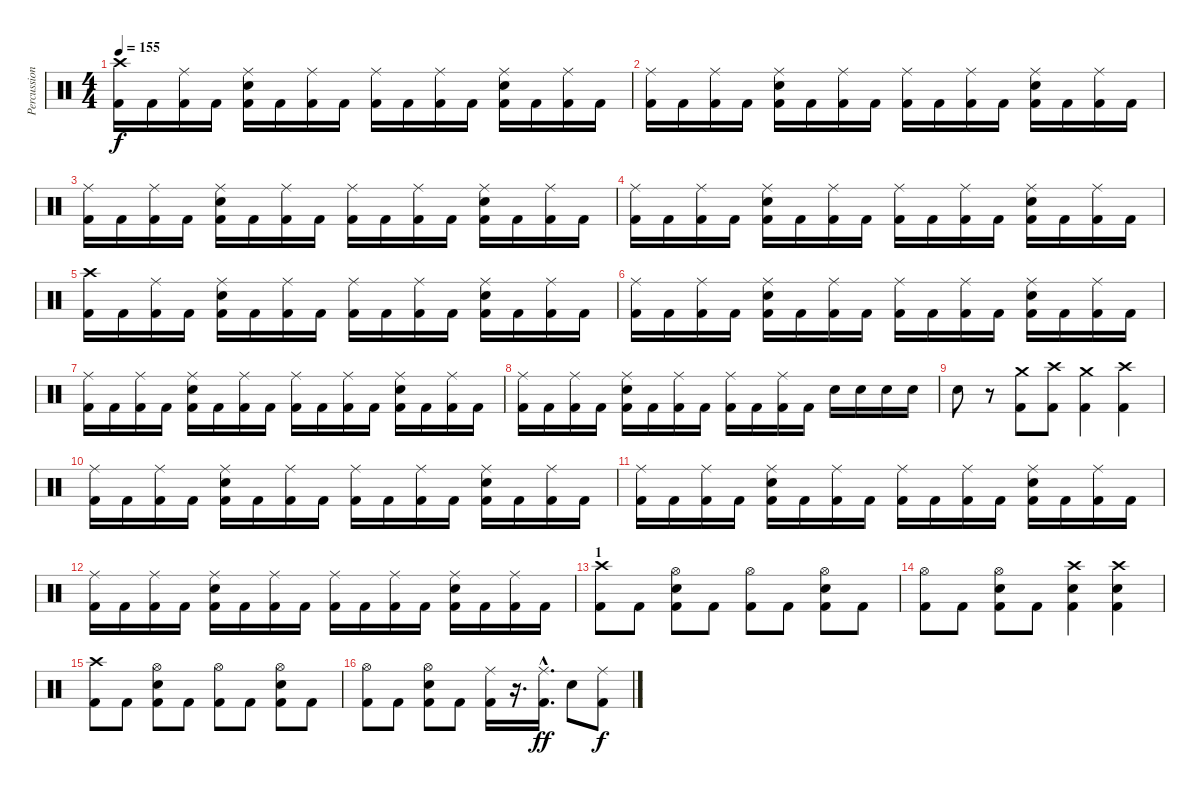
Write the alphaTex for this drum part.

\track ("Percussion" "Percussion") {instrument percussion}
\staff {score}
\articulation defaults
\ts (4 4)
\tempo 155
\clef neutral
\ks c
("Crash high (hit)" "Kick (hit) 2").16{dy f} "Kick (hit) 2".16 ("Ride (middle)" "Kick (hit) 2").16 "Kick (hit) 2".16 ("Ride (middle)" "Snare (hit) 2" "Kick (hit) 2").16 "Kick (hit) 2".16 ("Ride (middle)" "Kick (hit) 2").16 "Kick (hit) 2".16 ("Ride (middle)" "Kick (hit) 2").16 "Kick (hit) 2".16 ("Ride (middle)" "Kick (hit) 2").16 "Kick (hit) 2".16 ("Ride (middle)" "Snare (hit) 2" "Kick (hit) 2").16 "Kick (hit) 2".16 ("Ride (middle)" "Kick (hit) 2").16 "Kick (hit) 2".16 |
("Ride (middle)" "Kick (hit) 2").16 "Kick (hit) 2".16 ("Ride (middle)" "Kick (hit) 2").16 "Kick (hit) 2".16 ("Ride (middle)" "Snare (hit) 2" "Kick (hit) 2").16 "Kick (hit) 2".16 ("Ride (middle)" "Kick (hit) 2").16 "Kick (hit) 2".16 ("Ride (middle)" "Kick (hit) 2").16 "Kick (hit) 2".16 ("Ride (middle)" "Kick (hit) 2").16 "Kick (hit) 2".16 ("Ride (middle)" "Snare (hit) 2" "Kick (hit) 2").16 "Kick (hit) 2".16 ("Ride (middle)" "Kick (hit) 2").16 "Kick (hit) 2".16 |
("Ride (middle)" "Kick (hit) 2").16 "Kick (hit) 2".16 ("Ride (middle)" "Kick (hit) 2").16 "Kick (hit) 2".16 ("Ride (middle)" "Snare (hit) 2" "Kick (hit) 2").16 "Kick (hit) 2".16 ("Ride (middle)" "Kick (hit) 2").16 "Kick (hit) 2".16 ("Ride (middle)" "Kick (hit) 2").16 "Kick (hit) 2".16 ("Ride (middle)" "Kick (hit) 2").16 "Kick (hit) 2".16 ("Ride (middle)" "Snare (hit) 2" "Kick (hit) 2").16 "Kick (hit) 2".16 ("Ride (middle)" "Kick (hit) 2").16 "Kick (hit) 2".16 |
("Ride (middle)" "Kick (hit) 2").16 "Kick (hit) 2".16 ("Ride (middle)" "Kick (hit) 2").16 "Kick (hit) 2".16 ("Ride (middle)" "Snare (hit) 2" "Kick (hit) 2").16 "Kick (hit) 2".16 ("Ride (middle)" "Kick (hit) 2").16 "Kick (hit) 2".16 ("Ride (middle)" "Kick (hit) 2").16 "Kick (hit) 2".16 ("Ride (middle)" "Kick (hit) 2").16 "Kick (hit) 2".16 ("Ride (middle)" "Snare (hit) 2" "Kick (hit) 2").16 "Kick (hit) 2".16 ("Ride (middle)" "Kick (hit) 2").16 "Kick (hit) 2".16 |
("Crash high (hit)" "Kick (hit) 2").16 "Kick (hit) 2".16 ("Ride (middle)" "Kick (hit) 2").16 "Kick (hit) 2".16 ("Ride (middle)" "Snare (hit) 2" "Kick (hit) 2").16 "Kick (hit) 2".16 ("Ride (middle)" "Kick (hit) 2").16 "Kick (hit) 2".16 ("Ride (middle)" "Kick (hit) 2").16 "Kick (hit) 2".16 ("Ride (middle)" "Kick (hit) 2").16 "Kick (hit) 2".16 ("Ride (middle)" "Snare (hit) 2" "Kick (hit) 2").16 "Kick (hit) 2".16 ("Ride (middle)" "Kick (hit) 2").16 "Kick (hit) 2".16 |
("Ride (middle)" "Kick (hit) 2").16 "Kick (hit) 2".16 ("Ride (middle)" "Kick (hit) 2").16 "Kick (hit) 2".16 ("Ride (middle)" "Snare (hit) 2" "Kick (hit) 2").16 "Kick (hit) 2".16 ("Ride (middle)" "Kick (hit) 2").16 "Kick (hit) 2".16 ("Ride (middle)" "Kick (hit) 2").16 "Kick (hit) 2".16 ("Ride (middle)" "Kick (hit) 2").16 "Kick (hit) 2".16 ("Ride (middle)" "Snare (hit) 2" "Kick (hit) 2").16 "Kick (hit) 2".16 ("Ride (middle)" "Kick (hit) 2").16 "Kick (hit) 2".16 |
("Ride (middle)" "Kick (hit) 2").16 "Kick (hit) 2".16 ("Ride (middle)" "Kick (hit) 2").16 "Kick (hit) 2".16 ("Ride (middle)" "Snare (hit) 2" "Kick (hit) 2").16 "Kick (hit) 2".16 ("Ride (middle)" "Kick (hit) 2").16 "Kick (hit) 2".16 ("Ride (middle)" "Kick (hit) 2").16 "Kick (hit) 2".16 ("Ride (middle)" "Kick (hit) 2").16 "Kick (hit) 2".16 ("Ride (middle)" "Snare (hit) 2" "Kick (hit) 2").16 "Kick (hit) 2".16 ("Ride (middle)" "Kick (hit) 2").16 "Kick (hit) 2".16 |
("Ride (middle)" "Kick (hit) 2").16 "Kick (hit) 2".16 ("Ride (middle)" "Kick (hit) 2").16 "Kick (hit) 2".16 ("Ride (middle)" "Snare (hit) 2" "Kick (hit) 2").16 "Kick (hit) 2".16 ("Ride (middle)" "Kick (hit) 2").16 "Kick (hit) 2".16 ("Ride (middle)" "Kick (hit) 2").16 "Kick (hit) 2".16 ("Ride (middle)" "Kick (hit) 2").16 "Kick (hit) 2".16 "Snare (hit) 2".16 "Snare (hit) 2".16 "Snare (hit) 2".16 "Snare (hit) 2".16 |
"Snare (hit) 2".8 r.8 ("Crash medium (hit)" "Kick (hit) 2").8 ("Crash high (hit)" "Kick (hit) 2").8 ("Crash medium (hit)" "Kick (hit) 2").4 ("Crash high (hit)" "Kick (hit) 2").4 |
("Ride (middle)" "Kick (hit) 2").16 "Kick (hit) 2".16 ("Ride (middle)" "Kick (hit) 2").16 "Kick (hit) 2".16 ("Ride (middle)" "Snare (hit) 2" "Kick (hit) 2").16 "Kick (hit) 2".16 ("Ride (middle)" "Kick (hit) 2").16 "Kick (hit) 2".16 ("Ride (middle)" "Kick (hit) 2").16 "Kick (hit) 2".16 ("Ride (middle)" "Kick (hit) 2").16 "Kick (hit) 2".16 ("Ride (middle)" "Snare (hit) 2" "Kick (hit) 2").16 "Kick (hit) 2".16 ("Ride (middle)" "Kick (hit) 2").16 "Kick (hit) 2".16 |
("Ride (middle)" "Kick (hit) 2").16 "Kick (hit) 2".16 ("Ride (middle)" "Kick (hit) 2").16 "Kick (hit) 2".16 ("Ride (middle)" "Snare (hit) 2" "Kick (hit) 2").16 "Kick (hit) 2".16 ("Ride (middle)" "Kick (hit) 2").16 "Kick (hit) 2".16 ("Ride (middle)" "Kick (hit) 2").16 "Kick (hit) 2".16 ("Ride (middle)" "Kick (hit) 2").16 "Kick (hit) 2".16 ("Ride (middle)" "Snare (hit) 2" "Kick (hit) 2").16 "Kick (hit) 2".16 ("Ride (middle)" "Kick (hit) 2").16 "Kick (hit) 2".16 |
("Ride (middle)" "Kick (hit) 2").16 "Kick (hit) 2".16 ("Ride (middle)" "Kick (hit) 2").16 "Kick (hit) 2".16 ("Ride (middle)" "Snare (hit) 2" "Kick (hit) 2").16 "Kick (hit) 2".16 ("Ride (middle)" "Kick (hit) 2").16 "Kick (hit) 2".16 ("Ride (middle)" "Kick (hit) 2").16 "Kick (hit) 2".16 ("Ride (middle)" "Kick (hit) 2").16 "Kick (hit) 2".16 ("Ride (middle)" "Snare (hit) 2" "Kick (hit) 2").16 "Kick (hit) 2".16 ("Ride (middle)" "Kick (hit) 2").16 "Kick (hit) 2".16 |
\section ("" "1")
("Crash high (hit)" "Kick (hit) 2").8 "Kick (hit) 2".8 ("Hi-Hat (open)" "Snare (hit) 2" "Kick (hit) 2").8 "Kick (hit) 2".8 ("Hi-Hat (open)" "Kick (hit) 2").8 "Kick (hit) 2".8 ("Hi-Hat (open)" "Snare (hit) 2" "Kick (hit) 2").8 "Kick (hit) 2".8 |
("Hi-Hat (open)" "Kick (hit) 2").8 "Kick (hit) 2".8 ("Hi-Hat (open)" "Snare (hit) 2" "Kick (hit) 2").8 "Kick (hit) 2".8 ("Crash high (hit)" "Snare (hit) 2" "Kick (hit) 2").4 ("Crash high (hit)" "Snare (hit) 2" "Kick (hit) 2").4 |
("Crash high (hit)" "Kick (hit) 2").8 "Kick (hit) 2".8 ("Hi-Hat (open)" "Snare (hit) 2" "Kick (hit) 2").8 "Kick (hit) 2".8 ("Hi-Hat (open)" "Kick (hit) 2").8 "Kick (hit) 2".8 ("Hi-Hat (open)" "Snare (hit) 2" "Kick (hit) 2").8 "Kick (hit) 2".8 |
("Hi-Hat (open)" "Kick (hit) 2").8 "Kick (hit) 2".8 ("Hi-Hat (open)" "Snare (hit) 2" "Kick (hit) 2").8 "Kick (hit) 2".8 ("Ride (middle)" "Kick (hit) 2").16 r.16{d} ("Ride (middle)"{hac} "Kick (hit) 2"{hac}).16{d dy ff} "Snare (hit) 2".8 ("Ride (middle)" "Kick (hit) 2").8{dy f}
